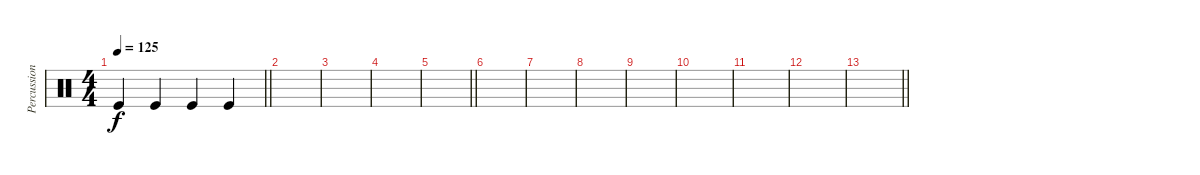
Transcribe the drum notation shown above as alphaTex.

\track ("Percussion" "Percussion") {instrument percussion}
\staff {score}
\articulation defaults
\ts (4 4)
\tempo 125
\clef neutral
\barLineRight lightlight
\ks c "Kick (hit)".4{dy f} "Kick (hit)".4 "Kick (hit)".4 "Kick (hit)".4
|
|
|
|
\barLineRight lightlight
|
|
|
|
|
|
|
|
\barLineRight lightlight
